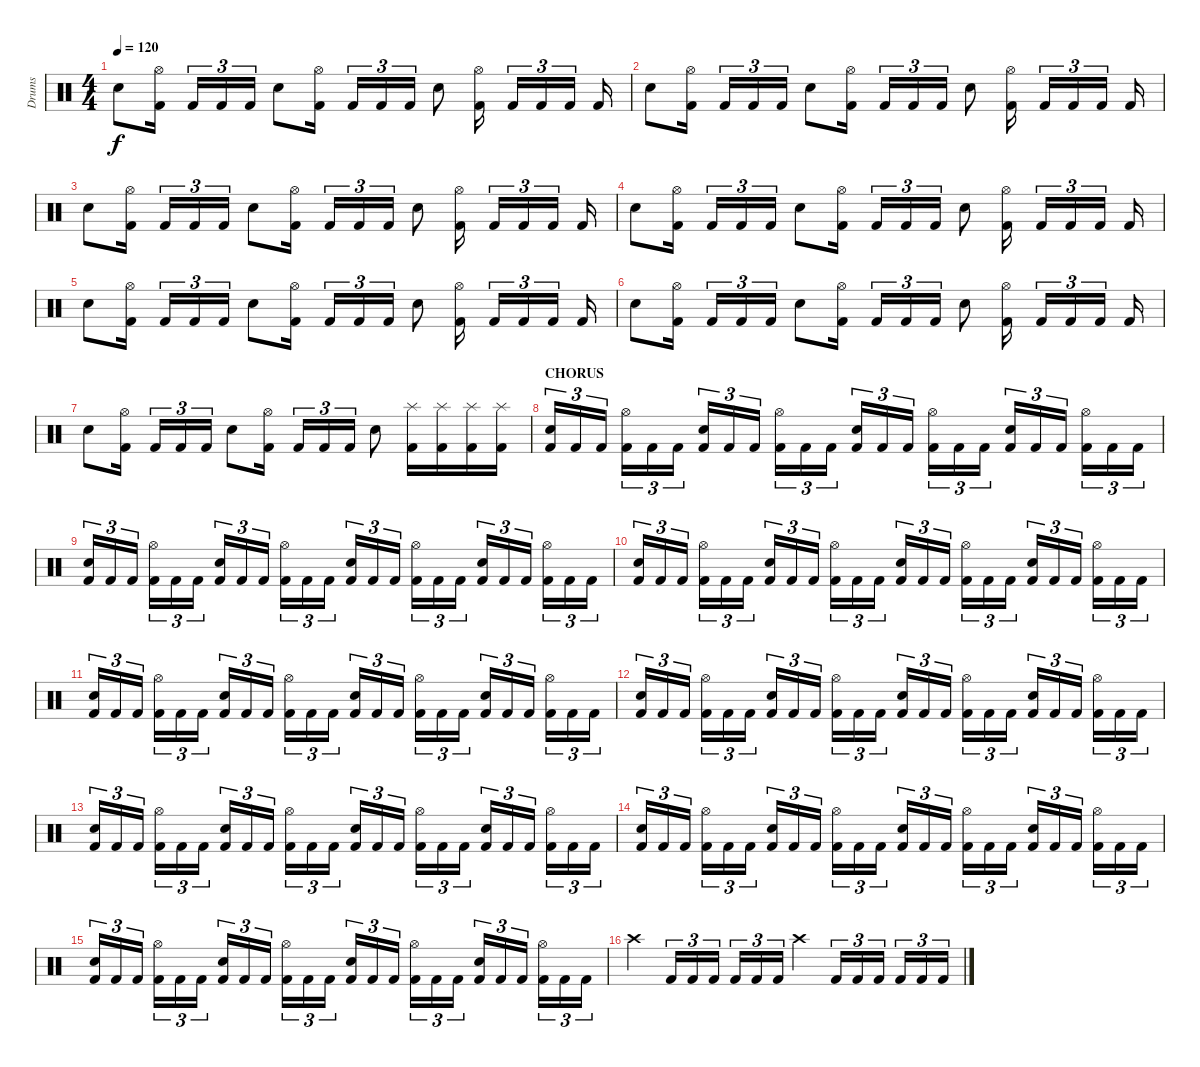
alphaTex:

\track ("Drums" "Drums") {instrument percussion}
\staff {score}
\articulation defaults
\ts (4 4)
\tempo 120
\clef neutral
\ks c "Electric Snare (hit)".8{dy f}
("Hi-Hat (open)" "Kick (hit) 2").16 "Kick (hit) 2".16{tu (3 2)} "Kick (hit) 2".16{tu (3 2)} "Kick (hit) 2".16{tu (3 2)} "Electric Snare (hit)".8 ("Hi-Hat (open)" "Kick (hit) 2").16 "Kick (hit) 2".16{tu (3 2)} "Kick (hit) 2".16{tu (3 2)} "Kick (hit) 2".16{tu (3 2)} "Electric Snare (hit)".8 ("Hi-Hat (open)" "Kick (hit) 2").16 "Kick (hit) 2".16{tu (3 2)} "Kick (hit) 2".16{tu (3 2)} "Kick (hit) 2".16{tu (3 2)} "Kick (hit) 2".16 |
"Electric Snare (hit)".8 ("Hi-Hat (open)" "Kick (hit) 2").16 "Kick (hit) 2".16{tu (3 2)} "Kick (hit) 2".16{tu (3 2)} "Kick (hit) 2".16{tu (3 2)} "Electric Snare (hit)".8 ("Hi-Hat (open)" "Kick (hit) 2").16 "Kick (hit) 2".16{tu (3 2)} "Kick (hit) 2".16{tu (3 2)} "Kick (hit) 2".16{tu (3 2)} "Electric Snare (hit)".8 ("Hi-Hat (open)" "Kick (hit) 2").16 "Kick (hit) 2".16{tu (3 2)} "Kick (hit) 2".16{tu (3 2)} "Kick (hit) 2".16{tu (3 2)} "Kick (hit) 2".16 |
"Electric Snare (hit)".8 ("Hi-Hat (open)" "Kick (hit) 2").16 "Kick (hit) 2".16{tu (3 2)} "Kick (hit) 2".16{tu (3 2)} "Kick (hit) 2".16{tu (3 2)} "Electric Snare (hit)".8 ("Hi-Hat (open)" "Kick (hit) 2").16 "Kick (hit) 2".16{tu (3 2)} "Kick (hit) 2".16{tu (3 2)} "Kick (hit) 2".16{tu (3 2)} "Electric Snare (hit)".8 ("Hi-Hat (open)" "Kick (hit) 2").16 "Kick (hit) 2".16{tu (3 2)} "Kick (hit) 2".16{tu (3 2)} "Kick (hit) 2".16{tu (3 2)} "Kick (hit) 2".16 |
"Electric Snare (hit)".8 ("Hi-Hat (open)" "Kick (hit) 2").16 "Kick (hit) 2".16{tu (3 2)} "Kick (hit) 2".16{tu (3 2)} "Kick (hit) 2".16{tu (3 2)} "Electric Snare (hit)".8 ("Hi-Hat (open)" "Kick (hit) 2").16 "Kick (hit) 2".16{tu (3 2)} "Kick (hit) 2".16{tu (3 2)} "Kick (hit) 2".16{tu (3 2)} "Electric Snare (hit)".8 ("Hi-Hat (open)" "Kick (hit) 2").16 "Kick (hit) 2".16{tu (3 2)} "Kick (hit) 2".16{tu (3 2)} "Kick (hit) 2".16{tu (3 2)} "Kick (hit) 2".16 |
"Electric Snare (hit)".8 ("Hi-Hat (open)" "Kick (hit) 2").16 "Kick (hit) 2".16{tu (3 2)} "Kick (hit) 2".16{tu (3 2)} "Kick (hit) 2".16{tu (3 2)} "Electric Snare (hit)".8 ("Hi-Hat (open)" "Kick (hit) 2").16 "Kick (hit) 2".16{tu (3 2)} "Kick (hit) 2".16{tu (3 2)} "Kick (hit) 2".16{tu (3 2)} "Electric Snare (hit)".8 ("Hi-Hat (open)" "Kick (hit) 2").16 "Kick (hit) 2".16{tu (3 2)} "Kick (hit) 2".16{tu (3 2)} "Kick (hit) 2".16{tu (3 2)} "Kick (hit) 2".16 |
"Electric Snare (hit)".8 ("Hi-Hat (open)" "Kick (hit) 2").16 "Kick (hit) 2".16{tu (3 2)} "Kick (hit) 2".16{tu (3 2)} "Kick (hit) 2".16{tu (3 2)} "Electric Snare (hit)".8 ("Hi-Hat (open)" "Kick (hit) 2").16 "Kick (hit) 2".16{tu (3 2)} "Kick (hit) 2".16{tu (3 2)} "Kick (hit) 2".16{tu (3 2)} "Electric Snare (hit)".8 ("Hi-Hat (open)" "Kick (hit) 2").16 "Kick (hit) 2".16{tu (3 2)} "Kick (hit) 2".16{tu (3 2)} "Kick (hit) 2".16{tu (3 2)} "Kick (hit) 2".16 |
"Electric Snare (hit)".8 ("Hi-Hat (open)" "Kick (hit) 2").16 "Kick (hit) 2".16{tu (3 2)} "Kick (hit) 2".16{tu (3 2)} "Kick (hit) 2".16{tu (3 2)} "Electric Snare (hit)".8 ("Hi-Hat (open)" "Kick (hit) 2").16 "Kick (hit) 2".16{tu (3 2)} "Kick (hit) 2".16{tu (3 2)} "Kick (hit) 2".16{tu (3 2)} "Electric Snare (hit)".8 ("Splash (hit)" "Kick (hit) 2").16 ("Splash (hit)" "Kick (hit) 2").16 ("Splash (hit)" "Kick (hit) 2").16 ("Splash (hit)" "Kick (hit) 2").16 |
\section ("" "CHORUS")
("Electric Snare (hit)" "Kick (hit) 2").16{tu (3 2)} "Kick (hit) 2".16{tu (3 2)} "Kick (hit) 2".16{tu (3 2)} ("Hi-Hat (open)" "Kick (hit) 2").16{tu (3 2)} "Kick (hit) 2".16{tu (3 2)} "Kick (hit) 2".16{tu (3 2)} ("Electric Snare (hit)" "Kick (hit) 2").16{tu (3 2)} "Kick (hit) 2".16{tu (3 2)} "Kick (hit) 2".16{tu (3 2)} ("Hi-Hat (open)" "Kick (hit) 2").16{tu (3 2)} "Kick (hit) 2".16{tu (3 2)} "Kick (hit) 2".16{tu (3 2)} ("Electric Snare (hit)" "Kick (hit) 2").16{tu (3 2)} "Kick (hit) 2".16{tu (3 2)} "Kick (hit) 2".16{tu (3 2)} ("Hi-Hat (open)" "Kick (hit) 2").16{tu (3 2)} "Kick (hit) 2".16{tu (3 2)} "Kick (hit) 2".16{tu (3 2)} ("Electric Snare (hit)" "Kick (hit) 2").16{tu (3 2)} "Kick (hit) 2".16{tu (3 2)} "Kick (hit) 2".16{tu (3 2)} ("Hi-Hat (open)" "Kick (hit) 2").16{tu (3 2)} "Kick (hit) 2".16{tu (3 2)} "Kick (hit) 2".16{tu (3 2)} |
("Electric Snare (hit)" "Kick (hit) 2").16{tu (3 2)} "Kick (hit) 2".16{tu (3 2)} "Kick (hit) 2".16{tu (3 2)} ("Hi-Hat (open)" "Kick (hit) 2").16{tu (3 2)} "Kick (hit) 2".16{tu (3 2)} "Kick (hit) 2".16{tu (3 2)} ("Electric Snare (hit)" "Kick (hit) 2").16{tu (3 2)} "Kick (hit) 2".16{tu (3 2)} "Kick (hit) 2".16{tu (3 2)} ("Hi-Hat (open)" "Kick (hit) 2").16{tu (3 2)} "Kick (hit) 2".16{tu (3 2)} "Kick (hit) 2".16{tu (3 2)} ("Electric Snare (hit)" "Kick (hit) 2").16{tu (3 2)} "Kick (hit) 2".16{tu (3 2)} "Kick (hit) 2".16{tu (3 2)} ("Hi-Hat (open)" "Kick (hit) 2").16{tu (3 2)} "Kick (hit) 2".16{tu (3 2)} "Kick (hit) 2".16{tu (3 2)} ("Electric Snare (hit)" "Kick (hit) 2").16{tu (3 2)} "Kick (hit) 2".16{tu (3 2)} "Kick (hit) 2".16{tu (3 2)} ("Hi-Hat (open)" "Kick (hit) 2").16{tu (3 2)} "Kick (hit) 2".16{tu (3 2)} "Kick (hit) 2".16{tu (3 2)} |
("Electric Snare (hit)" "Kick (hit) 2").16{tu (3 2)} "Kick (hit) 2".16{tu (3 2)} "Kick (hit) 2".16{tu (3 2)} ("Hi-Hat (open)" "Kick (hit) 2").16{tu (3 2)} "Kick (hit) 2".16{tu (3 2)} "Kick (hit) 2".16{tu (3 2)} ("Electric Snare (hit)" "Kick (hit) 2").16{tu (3 2)} "Kick (hit) 2".16{tu (3 2)} "Kick (hit) 2".16{tu (3 2)} ("Hi-Hat (open)" "Kick (hit) 2").16{tu (3 2)} "Kick (hit) 2".16{tu (3 2)} "Kick (hit) 2".16{tu (3 2)} ("Electric Snare (hit)" "Kick (hit) 2").16{tu (3 2)} "Kick (hit) 2".16{tu (3 2)} "Kick (hit) 2".16{tu (3 2)} ("Hi-Hat (open)" "Kick (hit) 2").16{tu (3 2)} "Kick (hit) 2".16{tu (3 2)} "Kick (hit) 2".16{tu (3 2)} ("Electric Snare (hit)" "Kick (hit) 2").16{tu (3 2)} "Kick (hit) 2".16{tu (3 2)} "Kick (hit) 2".16{tu (3 2)} ("Hi-Hat (open)" "Kick (hit) 2").16{tu (3 2)} "Kick (hit) 2".16{tu (3 2)} "Kick (hit) 2".16{tu (3 2)} |
("Electric Snare (hit)" "Kick (hit) 2").16{tu (3 2)} "Kick (hit) 2".16{tu (3 2)} "Kick (hit) 2".16{tu (3 2)} ("Hi-Hat (open)" "Kick (hit) 2").16{tu (3 2)} "Kick (hit) 2".16{tu (3 2)} "Kick (hit) 2".16{tu (3 2)} ("Electric Snare (hit)" "Kick (hit) 2").16{tu (3 2)} "Kick (hit) 2".16{tu (3 2)} "Kick (hit) 2".16{tu (3 2)} ("Hi-Hat (open)" "Kick (hit) 2").16{tu (3 2)} "Kick (hit) 2".16{tu (3 2)} "Kick (hit) 2".16{tu (3 2)} ("Electric Snare (hit)" "Kick (hit) 2").16{tu (3 2)} "Kick (hit) 2".16{tu (3 2)} "Kick (hit) 2".16{tu (3 2)} ("Hi-Hat (open)" "Kick (hit) 2").16{tu (3 2)} "Kick (hit) 2".16{tu (3 2)} "Kick (hit) 2".16{tu (3 2)} ("Electric Snare (hit)" "Kick (hit) 2").16{tu (3 2)} "Kick (hit) 2".16{tu (3 2)} "Kick (hit) 2".16{tu (3 2)} ("Hi-Hat (open)" "Kick (hit) 2").16{tu (3 2)} "Kick (hit) 2".16{tu (3 2)} "Kick (hit) 2".16{tu (3 2)} |
("Electric Snare (hit)" "Kick (hit) 2").16{tu (3 2)} "Kick (hit) 2".16{tu (3 2)} "Kick (hit) 2".16{tu (3 2)} ("Hi-Hat (open)" "Kick (hit) 2").16{tu (3 2)} "Kick (hit) 2".16{tu (3 2)} "Kick (hit) 2".16{tu (3 2)} ("Electric Snare (hit)" "Kick (hit) 2").16{tu (3 2)} "Kick (hit) 2".16{tu (3 2)} "Kick (hit) 2".16{tu (3 2)} ("Hi-Hat (open)" "Kick (hit) 2").16{tu (3 2)} "Kick (hit) 2".16{tu (3 2)} "Kick (hit) 2".16{tu (3 2)} ("Electric Snare (hit)" "Kick (hit) 2").16{tu (3 2)} "Kick (hit) 2".16{tu (3 2)} "Kick (hit) 2".16{tu (3 2)} ("Hi-Hat (open)" "Kick (hit) 2").16{tu (3 2)} "Kick (hit) 2".16{tu (3 2)} "Kick (hit) 2".16{tu (3 2)} ("Electric Snare (hit)" "Kick (hit) 2").16{tu (3 2)} "Kick (hit) 2".16{tu (3 2)} "Kick (hit) 2".16{tu (3 2)} ("Hi-Hat (open)" "Kick (hit) 2").16{tu (3 2)} "Kick (hit) 2".16{tu (3 2)} "Kick (hit) 2".16{tu (3 2)} |
("Electric Snare (hit)" "Kick (hit) 2").16{tu (3 2)} "Kick (hit) 2".16{tu (3 2)} "Kick (hit) 2".16{tu (3 2)} ("Hi-Hat (open)" "Kick (hit) 2").16{tu (3 2)} "Kick (hit) 2".16{tu (3 2)} "Kick (hit) 2".16{tu (3 2)} ("Electric Snare (hit)" "Kick (hit) 2").16{tu (3 2)} "Kick (hit) 2".16{tu (3 2)} "Kick (hit) 2".16{tu (3 2)} ("Hi-Hat (open)" "Kick (hit) 2").16{tu (3 2)} "Kick (hit) 2".16{tu (3 2)} "Kick (hit) 2".16{tu (3 2)} ("Electric Snare (hit)" "Kick (hit) 2").16{tu (3 2)} "Kick (hit) 2".16{tu (3 2)} "Kick (hit) 2".16{tu (3 2)} ("Hi-Hat (open)" "Kick (hit) 2").16{tu (3 2)} "Kick (hit) 2".16{tu (3 2)} "Kick (hit) 2".16{tu (3 2)} ("Electric Snare (hit)" "Kick (hit) 2").16{tu (3 2)} "Kick (hit) 2".16{tu (3 2)} "Kick (hit) 2".16{tu (3 2)} ("Hi-Hat (open)" "Kick (hit) 2").16{tu (3 2)} "Kick (hit) 2".16{tu (3 2)} "Kick (hit) 2".16{tu (3 2)} |
("Electric Snare (hit)" "Kick (hit) 2").16{tu (3 2)} "Kick (hit) 2".16{tu (3 2)} "Kick (hit) 2".16{tu (3 2)} ("Hi-Hat (open)" "Kick (hit) 2").16{tu (3 2)} "Kick (hit) 2".16{tu (3 2)} "Kick (hit) 2".16{tu (3 2)} ("Electric Snare (hit)" "Kick (hit) 2").16{tu (3 2)} "Kick (hit) 2".16{tu (3 2)} "Kick (hit) 2".16{tu (3 2)} ("Hi-Hat (open)" "Kick (hit) 2").16{tu (3 2)} "Kick (hit) 2".16{tu (3 2)} "Kick (hit) 2".16{tu (3 2)} ("Electric Snare (hit)" "Kick (hit) 2").16{tu (3 2)} "Kick (hit) 2".16{tu (3 2)} "Kick (hit) 2".16{tu (3 2)} ("Hi-Hat (open)" "Kick (hit) 2").16{tu (3 2)} "Kick (hit) 2".16{tu (3 2)} "Kick (hit) 2".16{tu (3 2)} ("Electric Snare (hit)" "Kick (hit) 2").16{tu (3 2)} "Kick (hit) 2".16{tu (3 2)} "Kick (hit) 2".16{tu (3 2)} ("Hi-Hat (open)" "Kick (hit) 2").16{tu (3 2)} "Kick (hit) 2".16{tu (3 2)} "Kick (hit) 2".16{tu (3 2)} |
("Electric Snare (hit)" "Kick (hit) 2").16{tu (3 2)} "Kick (hit) 2".16{tu (3 2)} "Kick (hit) 2".16{tu (3 2)} ("Hi-Hat (open)" "Kick (hit) 2").16{tu (3 2)} "Kick (hit) 2".16{tu (3 2)} "Kick (hit) 2".16{tu (3 2)} ("Electric Snare (hit)" "Kick (hit) 2").16{tu (3 2)} "Kick (hit) 2".16{tu (3 2)} "Kick (hit) 2".16{tu (3 2)} ("Hi-Hat (open)" "Kick (hit) 2").16{tu (3 2)} "Kick (hit) 2".16{tu (3 2)} "Kick (hit) 2".16{tu (3 2)} ("Electric Snare (hit)" "Kick (hit) 2").16{tu (3 2)} "Kick (hit) 2".16{tu (3 2)} "Kick (hit) 2".16{tu (3 2)} ("Hi-Hat (open)" "Kick (hit) 2").16{tu (3 2)} "Kick (hit) 2".16{tu (3 2)} "Kick (hit) 2".16{tu (3 2)} ("Electric Snare (hit)" "Kick (hit) 2").16{tu (3 2)} "Kick (hit) 2".16{tu (3 2)} "Kick (hit) 2".16{tu (3 2)} ("Hi-Hat (open)" "Kick (hit) 2").16{tu (3 2)} "Kick (hit) 2".16{tu (3 2)} "Kick (hit) 2".16{tu (3 2)} |
"Crash high (hit)".4 "Kick (hit) 2".16{tu (3 2)} "Kick (hit) 2".16{tu (3 2)} "Kick (hit) 2".16{tu (3 2)} "Kick (hit) 2".16{tu (3 2)} "Kick (hit) 2".16{tu (3 2)} "Kick (hit) 2".16{tu (3 2)} "Crash high (hit)".4 "Kick (hit) 2".16{tu (3 2)} "Kick (hit) 2".16{tu (3 2)} "Kick (hit) 2".16{tu (3 2)} "Kick (hit) 2".16{tu (3 2)} "Kick (hit) 2".16{tu (3 2)} "Kick (hit) 2".16{tu (3 2)}
